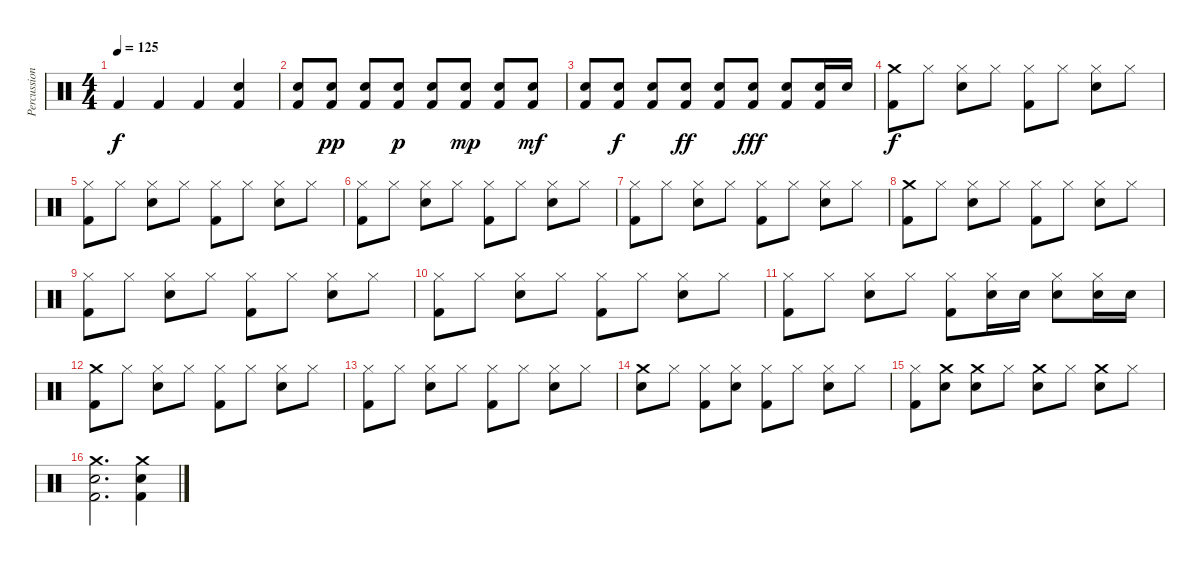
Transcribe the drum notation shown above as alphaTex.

\track ("Percussion" "Percussion") {instrument percussion}
\staff {score}
\articulation defaults
\ts (4 4)
\tempo 125
\clef neutral
\ks c "Kick (hit) 2".4{dy f} "Kick (hit) 2".4 "Kick (hit) 2".4
("Snare (hit) 2" "Kick (hit) 2").4 |
("Snare (hit) 2" "Kick (hit) 2").8 ("Snare (hit) 2" "Kick (hit) 2").8{dy pp} ("Snare (hit) 2" "Kick (hit) 2").8 ("Snare (hit) 2" "Kick (hit) 2").8{dy p} ("Snare (hit) 2" "Kick (hit) 2").8 ("Snare (hit) 2" "Kick (hit) 2").8{dy mp} ("Snare (hit) 2" "Kick (hit) 2").8 ("Snare (hit) 2" "Kick (hit) 2").8{dy mf} |
("Snare (hit) 2" "Kick (hit) 2").8 ("Snare (hit) 2" "Kick (hit) 2").8{dy f} ("Snare (hit) 2" "Kick (hit) 2").8 ("Snare (hit) 2" "Kick (hit) 2").8{dy ff} ("Snare (hit) 2" "Kick (hit) 2").8 ("Snare (hit) 2" "Kick (hit) 2").8{dy fff} ("Snare (hit) 2" "Kick (hit) 2").8 ("Snare (hit) 2" "Kick (hit) 2").16 "Snare (hit) 2".16 |
("Crash medium (hit)" "Kick (hit) 2").8{dy f} "Hi-Hat (closed)".8 ("Hi-Hat (closed)" "Snare (hit) 2").8 "Hi-Hat (closed)".8 ("Hi-Hat (closed)" "Kick (hit) 2").8 "Hi-Hat (closed)".8 ("Hi-Hat (closed)" "Snare (hit) 2").8 "Hi-Hat (closed)".8 |
("Hi-Hat (closed)" "Kick (hit) 2").8 "Hi-Hat (closed)".8 ("Hi-Hat (closed)" "Snare (hit) 2").8 "Hi-Hat (closed)".8 ("Hi-Hat (closed)" "Kick (hit) 2").8 "Hi-Hat (closed)".8 ("Hi-Hat (closed)" "Snare (hit) 2").8 "Hi-Hat (closed)".8 |
("Hi-Hat (closed)" "Kick (hit) 2").8 "Hi-Hat (closed)".8 ("Hi-Hat (closed)" "Snare (hit) 2").8 "Hi-Hat (closed)".8 ("Hi-Hat (closed)" "Kick (hit) 2").8 "Hi-Hat (closed)".8 ("Hi-Hat (closed)" "Snare (hit) 2").8 "Hi-Hat (closed)".8 |
("Hi-Hat (closed)" "Kick (hit) 2").8 "Hi-Hat (closed)".8 ("Hi-Hat (closed)" "Snare (hit) 2").8 "Hi-Hat (closed)".8 ("Hi-Hat (closed)" "Kick (hit) 2").8 "Hi-Hat (closed)".8 ("Hi-Hat (closed)" "Snare (hit) 2").8 "Hi-Hat (closed)".8 |
("Crash medium (hit)" "Kick (hit) 2").8 "Hi-Hat (closed)".8 ("Hi-Hat (closed)" "Snare (hit) 2").8 "Hi-Hat (closed)".8 ("Hi-Hat (closed)" "Kick (hit) 2").8 "Hi-Hat (closed)".8 ("Hi-Hat (closed)" "Snare (hit) 2").8 "Hi-Hat (closed)".8 |
("Hi-Hat (closed)" "Kick (hit) 2").8 "Hi-Hat (closed)".8 ("Hi-Hat (closed)" "Snare (hit) 2").8 "Hi-Hat (closed)".8 ("Hi-Hat (closed)" "Kick (hit) 2").8 "Hi-Hat (closed)".8 ("Hi-Hat (closed)" "Snare (hit) 2").8 "Hi-Hat (closed)".8 |
("Hi-Hat (closed)" "Kick (hit) 2").8 "Hi-Hat (closed)".8 ("Hi-Hat (closed)" "Snare (hit) 2").8 "Hi-Hat (closed)".8 ("Hi-Hat (closed)" "Kick (hit) 2").8 "Hi-Hat (closed)".8 ("Hi-Hat (closed)" "Snare (hit) 2").8 "Hi-Hat (closed)".8 |
("Hi-Hat (closed)" "Kick (hit) 2").8 "Hi-Hat (closed)".8 ("Hi-Hat (closed)" "Snare (hit) 2").8 "Hi-Hat (closed)".8 ("Hi-Hat (closed)" "Kick (hit) 2").8 ("Hi-Hat (closed)" "Snare (hit) 2").16 "Snare (hit) 2".16 ("Hi-Hat (closed)" "Snare (hit) 2").8 ("Hi-Hat (closed)" "Snare (hit) 2").16 "Snare (hit) 2".16 |
("Crash medium (hit)" "Kick (hit) 2").8 "Hi-Hat (closed)".8 ("Hi-Hat (closed)" "Snare (hit) 2").8 "Hi-Hat (closed)".8 ("Hi-Hat (closed)" "Kick (hit) 2").8 "Hi-Hat (closed)".8 ("Hi-Hat (closed)" "Snare (hit) 2").8 "Hi-Hat (closed)".8 |
("Hi-Hat (closed)" "Kick (hit) 2").8 "Hi-Hat (closed)".8 ("Hi-Hat (closed)" "Snare (hit) 2").8 "Hi-Hat (closed)".8 ("Hi-Hat (closed)" "Kick (hit) 2").8 "Hi-Hat (closed)".8 ("Hi-Hat (closed)" "Snare (hit) 2").8 "Hi-Hat (closed)".8 |
("Crash medium (hit)" "Snare (hit) 2").8 "Hi-Hat (closed)".8 ("Hi-Hat (closed)" "Kick (hit) 2").8 ("Hi-Hat (closed)" "Snare (hit) 2").8 ("Hi-Hat (closed)" "Kick (hit) 2").8 "Hi-Hat (closed)".8 ("Hi-Hat (closed)" "Snare (hit) 2").8 "Hi-Hat (closed)".8 |
("Hi-Hat (closed)" "Kick (hit) 2").8 ("Crash medium (hit)" "Snare (hit) 2").8 ("Crash medium (hit)" "Snare (hit) 2").8 "Hi-Hat (closed)".8 ("Crash medium (hit)" "Snare (hit) 2").8 "Hi-Hat (closed)".8 ("Crash medium (hit)" "Snare (hit) 2").8 "Hi-Hat (closed)".8 |
("Crash medium (hit)" "Snare (hit) 2" "Kick (hit) 2").2{d} ("Crash medium (hit)" "Snare (hit) 2" "Kick (hit) 2").4
